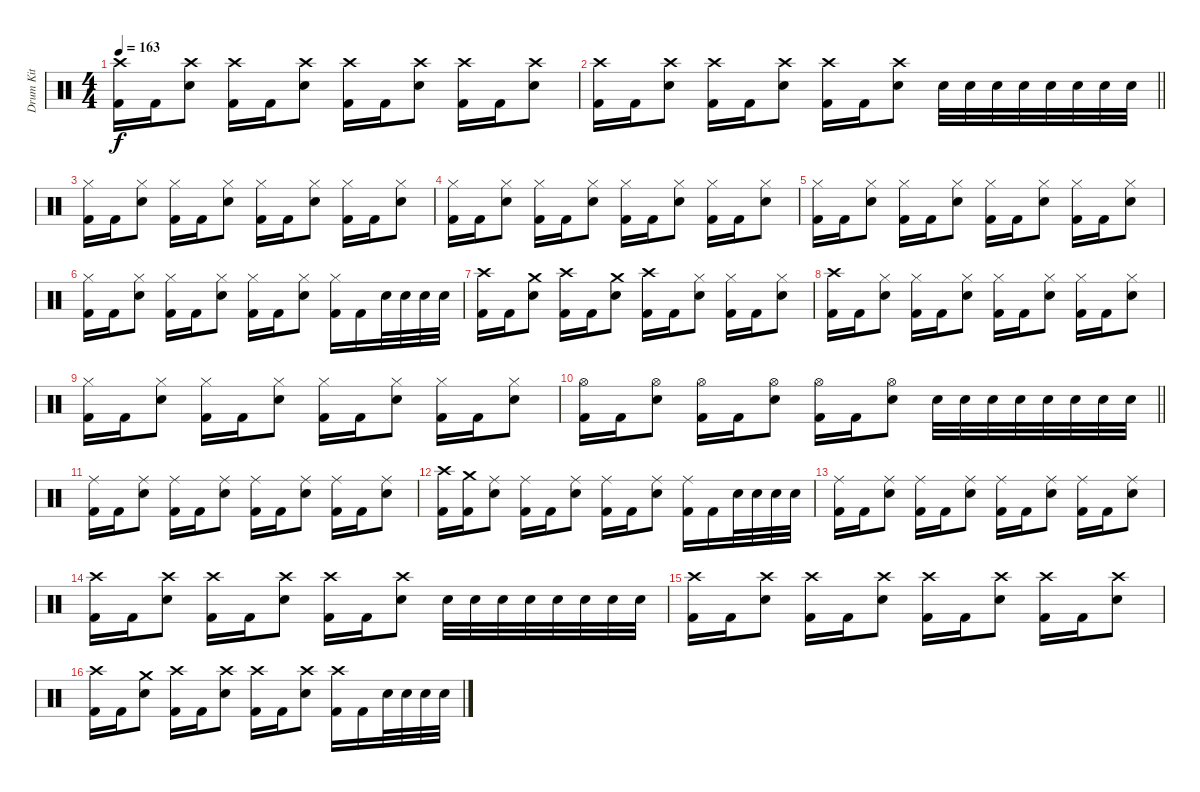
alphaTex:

\track ("Drum Kit" "Drum Kit") {instrument percussion}
\staff {score}
\articulation defaults
\ts (4 4)
\tempo 163
\clef neutral
\ks c
("Crash high (hit)" "Kick (hit) 2").16{dy f} "Kick (hit) 2".16 ("Crash high (hit)" "Electric Snare (hit)").8 ("Crash high (hit)" "Kick (hit) 2").16 "Kick (hit) 2".16 ("Crash high (hit)" "Electric Snare (hit)").8 ("Crash high (hit)" "Kick (hit) 2").16 "Kick (hit) 2".16 ("Crash high (hit)" "Electric Snare (hit)").8 ("Crash high (hit)" "Kick (hit) 2").16 "Kick (hit) 2".16 ("Crash high (hit)" "Electric Snare (hit)").8 |
\barLineRight lightlight
("Crash high (hit)" "Kick (hit) 2").16 "Kick (hit) 2".16 ("Crash high (hit)" "Electric Snare (hit)").8 ("Crash high (hit)" "Kick (hit) 2").16 "Kick (hit) 2".16 ("Crash high (hit)" "Electric Snare (hit)").8 ("Crash high (hit)" "Kick (hit) 2").16 "Kick (hit) 2".16 ("Crash high (hit)" "Electric Snare (hit)").8 "Electric Snare (hit)".32 "Electric Snare (hit)".32 "Electric Snare (hit)".32 "Electric Snare (hit)".32 "Electric Snare (hit)".32 "Electric Snare (hit)".32 "Electric Snare (hit)".32 "Electric Snare (hit)".32 |
("Hi-Hat (closed)" "Kick (hit) 2").16 "Kick (hit) 2".16 ("Hi-Hat (closed)" "Electric Snare (hit)").8 ("Hi-Hat (closed)" "Kick (hit) 2").16 "Kick (hit) 2".16 ("Hi-Hat (closed)" "Electric Snare (hit)").8 ("Hi-Hat (closed)" "Kick (hit) 2").16 "Kick (hit) 2".16 ("Hi-Hat (closed)" "Electric Snare (hit)").8 ("Hi-Hat (closed)" "Kick (hit) 2").16 "Kick (hit) 2".16 ("Hi-Hat (closed)" "Electric Snare (hit)").8 |
("Hi-Hat (closed)" "Kick (hit) 2").16 "Kick (hit) 2".16 ("Hi-Hat (closed)" "Electric Snare (hit)").8 ("Hi-Hat (closed)" "Kick (hit) 2").16 "Kick (hit) 2".16 ("Hi-Hat (closed)" "Electric Snare (hit)").8 ("Hi-Hat (closed)" "Kick (hit) 2").16 "Kick (hit) 2".16 ("Hi-Hat (closed)" "Electric Snare (hit)").8 ("Hi-Hat (closed)" "Kick (hit) 2").16 "Kick (hit) 2".16 ("Hi-Hat (closed)" "Electric Snare (hit)").8 |
("Hi-Hat (closed)" "Kick (hit) 2").16 "Kick (hit) 2".16 ("Hi-Hat (closed)" "Electric Snare (hit)").8 ("Hi-Hat (closed)" "Kick (hit) 2").16 "Kick (hit) 2".16 ("Hi-Hat (closed)" "Electric Snare (hit)").8 ("Hi-Hat (closed)" "Kick (hit) 2").16 "Kick (hit) 2".16 ("Hi-Hat (closed)" "Electric Snare (hit)").8 ("Hi-Hat (closed)" "Kick (hit) 2").16 "Kick (hit) 2".16 ("Hi-Hat (closed)" "Electric Snare (hit)").8 |
("Hi-Hat (closed)" "Kick (hit) 2").16 "Kick (hit) 2".16 ("Hi-Hat (closed)" "Electric Snare (hit)").8 ("Hi-Hat (closed)" "Kick (hit) 2").16 "Kick (hit) 2".16 ("Hi-Hat (closed)" "Electric Snare (hit)").8 ("Hi-Hat (closed)" "Kick (hit) 2").16 "Kick (hit) 2".16 ("Hi-Hat (closed)" "Electric Snare (hit)").8 ("Hi-Hat (closed)" "Kick (hit) 2").16 "Kick (hit) 2".16 "Electric Snare (hit)".32 "Electric Snare (hit)".32 "Electric Snare (hit)".32 "Electric Snare (hit)".32 |
("Crash high (hit)" "Kick (hit) 2").16 "Kick (hit) 2".16 ("Crash medium (hit)" "Electric Snare (hit)").8 ("Crash high (hit)" "Kick (hit) 2").16 "Kick (hit) 2".16 ("Crash medium (hit)" "Electric Snare (hit)").8 ("Crash high (hit)" "Kick (hit) 2").16 "Kick (hit) 2".16 ("Hi-Hat (closed)" "Electric Snare (hit)").8 ("Hi-Hat (closed)" "Kick (hit) 2").16 "Kick (hit) 2".16 ("Hi-Hat (closed)" "Electric Snare (hit)").8 |
("Crash high (hit)" "Kick (hit) 2").16 "Kick (hit) 2".16 ("Hi-Hat (closed)" "Electric Snare (hit)").8 ("Hi-Hat (closed)" "Kick (hit) 2").16 "Kick (hit) 2".16 ("Hi-Hat (closed)" "Electric Snare (hit)").8 ("Hi-Hat (closed)" "Kick (hit) 2").16 "Kick (hit) 2".16 ("Hi-Hat (closed)" "Electric Snare (hit)").8 ("Hi-Hat (closed)" "Kick (hit) 2").16 "Kick (hit) 2".16 ("Hi-Hat (closed)" "Electric Snare (hit)").8 |
("Hi-Hat (closed)" "Kick (hit) 2").16 "Kick (hit) 2".16 ("Hi-Hat (closed)" "Electric Snare (hit)").8 ("Hi-Hat (closed)" "Kick (hit) 2").16 "Kick (hit) 2".16 ("Hi-Hat (closed)" "Electric Snare (hit)").8 ("Hi-Hat (closed)" "Kick (hit) 2").16 "Kick (hit) 2".16 ("Hi-Hat (closed)" "Electric Snare (hit)").8 ("Hi-Hat (closed)" "Kick (hit) 2").16 "Kick (hit) 2".16 ("Hi-Hat (closed)" "Electric Snare (hit)").8 |
\barLineRight lightlight
("Hi-Hat (open)" "Kick (hit) 2").16 "Kick (hit) 2".16 ("Hi-Hat (open)" "Electric Snare (hit)").8 ("Hi-Hat (open)" "Kick (hit) 2").16 "Kick (hit) 2".16 ("Hi-Hat (open)" "Electric Snare (hit)").8 ("Hi-Hat (open)" "Kick (hit) 2").16 "Kick (hit) 2".16 ("Hi-Hat (open)" "Electric Snare (hit)").8 "Electric Snare (hit)".32 "Electric Snare (hit)".32 "Electric Snare (hit)".32 "Electric Snare (hit)".32 "Electric Snare (hit)".32 "Electric Snare (hit)".32 "Electric Snare (hit)".32 "Electric Snare (hit)".32 |
("Ride (middle)" "Kick (hit) 2").16 "Kick (hit) 2".16 ("Ride (middle)" "Electric Snare (hit)").8 ("Ride (middle)" "Kick (hit) 2").16 "Kick (hit) 2".16 ("Ride (middle)" "Electric Snare (hit)").8 ("Ride (middle)" "Kick (hit) 2").16 "Kick (hit) 2".16 ("Ride (middle)" "Electric Snare (hit)").8 ("Ride (middle)" "Kick (hit) 2").16 "Kick (hit) 2".16 ("Ride (middle)" "Electric Snare (hit)").8 |
("Crash high (hit)" "Kick (hit) 2").16 ("Crash medium (hit)" "Kick (hit) 2").16 ("Ride (middle)" "Electric Snare (hit)").8 ("Ride (middle)" "Kick (hit) 2").16 "Kick (hit) 2".16 ("Ride (middle)" "Electric Snare (hit)").8 ("Ride (middle)" "Kick (hit) 2").16 "Kick (hit) 2".16 ("Ride (middle)" "Electric Snare (hit)").8 ("Ride (middle)" "Kick (hit) 2").16 "Kick (hit) 2".16 "Electric Snare (hit)".32 "Electric Snare (hit)".32 "Electric Snare (hit)".32 "Electric Snare (hit)".32 |
("Ride (middle)" "Kick (hit) 2").16 "Kick (hit) 2".16 ("Ride (middle)" "Electric Snare (hit)").8 ("Ride (middle)" "Kick (hit) 2").16 "Kick (hit) 2".16 ("Ride (middle)" "Electric Snare (hit)").8 ("Ride (middle)" "Kick (hit) 2").16 "Kick (hit) 2".16 ("Ride (middle)" "Electric Snare (hit)").8 ("Ride (middle)" "Kick (hit) 2").16 "Kick (hit) 2".16 ("Ride (middle)" "Electric Snare (hit)").8 |
("Crash high (hit)" "Kick (hit) 2").16 "Kick (hit) 2".16 ("Crash high (hit)" "Electric Snare (hit)").8 ("Crash high (hit)" "Kick (hit) 2").16 "Kick (hit) 2".16 ("Crash high (hit)" "Electric Snare (hit)").8 ("Crash high (hit)" "Kick (hit) 2").16 "Kick (hit) 2".16 ("Crash high (hit)" "Electric Snare (hit)").8 "Electric Snare (hit)".32 "Electric Snare (hit)".32 "Electric Snare (hit)".32 "Electric Snare (hit)".32 "Electric Snare (hit)".32 "Electric Snare (hit)".32 "Electric Snare (hit)".32 "Electric Snare (hit)".32 |
("Crash high (hit)" "Kick (hit) 2").16 "Kick (hit) 2".16 ("Crash high (hit)" "Electric Snare (hit)").8 ("Crash high (hit)" "Kick (hit) 2").16 "Kick (hit) 2".16 ("Crash high (hit)" "Electric Snare (hit)").8 ("Crash high (hit)" "Kick (hit) 2").16 "Kick (hit) 2".16 ("Crash high (hit)" "Electric Snare (hit)").8 ("Crash high (hit)" "Kick (hit) 2").16 "Kick (hit) 2".16 ("Crash high (hit)" "Electric Snare (hit)").8 |
("Crash high (hit)" "Kick (hit) 2").16 "Kick (hit) 2".16 ("Crash medium (hit)" "Electric Snare (hit)").8 ("Crash high (hit)" "Kick (hit) 2").16 "Kick (hit) 2".16 ("Crash high (hit)" "Electric Snare (hit)").8 ("Crash high (hit)" "Kick (hit) 2").16 "Kick (hit) 2".16 ("Crash high (hit)" "Electric Snare (hit)").8 ("Crash high (hit)" "Kick (hit) 2").16 "Kick (hit) 2".16 "Electric Snare (hit)".32 "Electric Snare (hit)".32 "Electric Snare (hit)".32 "Electric Snare (hit)".32
